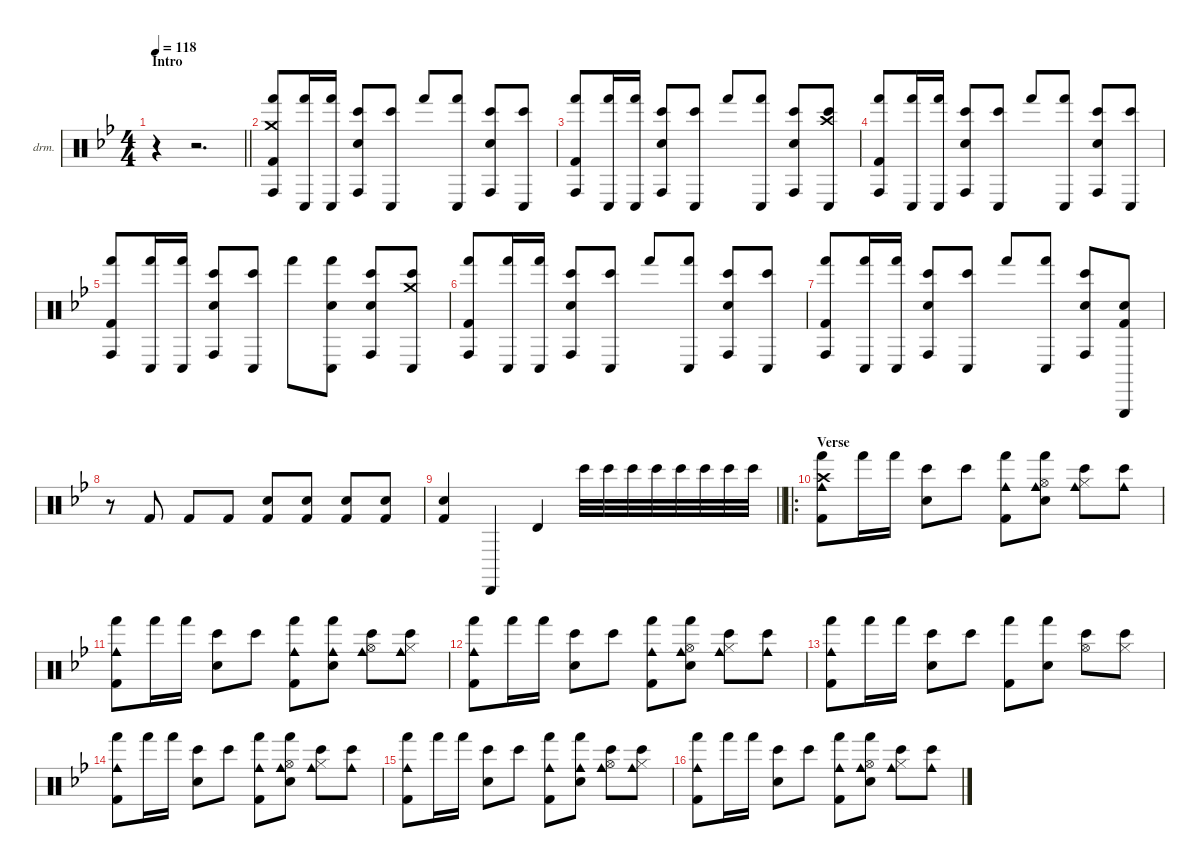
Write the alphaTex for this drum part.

\defaultSystemsLayout 4
\hideDynamics
\bracketExtendMode nobrackets
\firstSystemTrackNameOrientation horizontal
\otherSystemsTrackNameOrientation horizontal
\track ("Percussion" "drm.") {instrument percussion}
\staff {score}
\articulation defaults
\ts (4 4)
\beaming (8 2 2 2 2)
\section ("" "Intro")
\tempo 118
\clef neutral
\barLineRight lightlight
\ks gminor
r.4{dy f} r.2{d} |
("Crash medium (hit)"{acc forcenatural} "Hand (hit)"{acc forcenatural} "Conga high (hit)"{acc forcenatural} "Kick (hit) 2"{acc forcenatural}).8 ("Hand (hit)"{acc forcenatural} "Conga low (hit)"{acc forcenatural}).16 ("Hand (hit)"{acc forcenatural} "Conga low (hit)"{acc forcenatural}).16 ("Bongo High (hit)"{acc forcenatural} "Snare (hit) 2"{acc forcenatural} "Conga high (hit)"{acc forcenatural}).8 ("Bongo High (hit)"{acc forcenatural} "Conga low (hit)"{acc forcenatural}).8 "Hand (hit)"{acc forcenatural}.8 ("Hand (hit)"{acc forcenatural} "Conga low (hit)"{acc forcenatural}).8 ("Bongo High (hit)"{acc forcenatural} "Snare (hit) 2"{acc forcenatural} "Conga high (hit)"{acc forcenatural}).8 ("Bongo High (hit)"{acc forcenatural} "Conga low (hit)"{acc forcenatural}).8 |
("Hand (hit)"{acc forcenatural} "Conga high (hit)"{acc forcenatural} "Kick (hit) 2"{acc forcenatural}).8 ("Hand (hit)"{acc forcenatural} "Conga low (hit)"{acc forcenatural}).16 ("Hand (hit)"{acc forcenatural} "Conga low (hit)"{acc forcenatural}).16 ("Bongo High (hit)"{acc forcenatural} "Snare (hit) 2"{acc forcenatural} "Conga high (hit)"{acc forcenatural}).8 ("Bongo High (hit)"{acc forcenatural} "Conga low (hit)"{acc forcenatural}).8 "Hand (hit)"{acc forcenatural}.8 ("Hand (hit)"{acc forcenatural} "Conga low (hit)"{acc forcenatural}).8 ("Bongo High (hit)"{acc forcenatural} "Snare (hit) 2"{acc forcenatural} "Conga high (hit)"{acc forcenatural}).8 ("Crash high (hit)"{acc forcenatural} "Bongo High (hit)"{acc forcenatural} "Conga low (hit)"{acc forcenatural}).8 |
("Hand (hit)"{acc forcenatural} "Conga high (hit)"{acc forcenatural} "Kick (hit) 2"{acc forcenatural}).8 ("Hand (hit)"{acc forcenatural} "Conga low (hit)"{acc forcenatural}).16 ("Hand (hit)"{acc forcenatural} "Conga low (hit)"{acc forcenatural}).16 ("Bongo High (hit)"{acc forcenatural} "Snare (hit) 2"{acc forcenatural} "Conga high (hit)"{acc forcenatural}).8 ("Bongo High (hit)"{acc forcenatural} "Conga low (hit)"{acc forcenatural}).8 "Hand (hit)"{acc forcenatural}.8 ("Hand (hit)"{acc forcenatural} "Conga low (hit)"{acc forcenatural}).8 ("Bongo High (hit)"{acc forcenatural} "Snare (hit) 2"{acc forcenatural} "Conga high (hit)"{acc forcenatural}).8 ("Bongo High (hit)"{acc forcenatural} "Conga low (hit)"{acc forcenatural}).8 |
("Hand (hit)"{acc forcenatural} "Conga high (hit)"{acc forcenatural} "Kick (hit) 2"{acc forcenatural}).8 ("Hand (hit)"{acc forcenatural} "Conga low (hit)"{acc forcenatural}).16 ("Hand (hit)"{acc forcenatural} "Conga low (hit)"{acc forcenatural}).16 ("Bongo High (hit)"{acc forcenatural} "Snare (hit) 2"{acc forcenatural} "Conga high (hit)"{acc forcenatural}).8 ("Bongo High (hit)"{acc forcenatural} "Conga low (hit)"{acc forcenatural}).8 "Hand (hit)"{acc forcenatural}.8 ("Hand (hit)"{acc forcenatural} "Snare (hit) 2"{acc forcenatural} "Conga low (hit)"{acc forcenatural}).8 ("Bongo High (hit)"{acc forcenatural} "Snare (hit) 2"{acc forcenatural} "Conga high (hit)"{acc forcenatural}).8 ("Crash medium (hit)"{acc forcenatural} "Bongo High (hit)"{acc forcenatural} "Conga low (hit)"{acc forcenatural}).8 |
("Hand (hit)"{acc forcenatural} "Conga high (hit)"{acc forcenatural} "Kick (hit) 2"{acc forcenatural}).8 ("Hand (hit)"{acc forcenatural} "Conga low (hit)"{acc forcenatural}).16 ("Hand (hit)"{acc forcenatural} "Conga low (hit)"{acc forcenatural}).16 ("Bongo High (hit)"{acc forcenatural} "Snare (hit) 2"{acc forcenatural} "Conga high (hit)"{acc forcenatural}).8 ("Bongo High (hit)"{acc forcenatural} "Conga low (hit)"{acc forcenatural}).8 "Hand (hit)"{acc forcenatural}.8 ("Hand (hit)"{acc forcenatural} "Conga low (hit)"{acc forcenatural}).8 ("Bongo High (hit)"{acc forcenatural} "Snare (hit) 2"{acc forcenatural} "Conga high (hit)"{acc forcenatural}).8 ("Bongo High (hit)"{acc forcenatural} "Conga low (hit)"{acc forcenatural}).8 |
("Hand (hit)"{acc forcenatural} "Conga high (hit)"{acc forcenatural} "Kick (hit) 2"{acc forcenatural}).8 ("Hand (hit)"{acc forcenatural} "Conga low (hit)"{acc forcenatural}).16 ("Hand (hit)"{acc forcenatural} "Conga low (hit)"{acc forcenatural}).16 ("Bongo High (hit)"{acc forcenatural} "Snare (hit) 2"{acc forcenatural} "Conga high (hit)"{acc forcenatural}).8 ("Bongo High (hit)"{acc forcenatural} "Conga low (hit)"{acc forcenatural}).8 "Hand (hit)"{acc forcenatural}.8 ("Hand (hit)"{acc forcenatural} "Conga low (hit)"{acc forcenatural}).8 ("Bongo High (hit)"{acc forcenatural} "Snare (hit) 2"{acc forcenatural} "Conga high (hit)"{acc forcenatural}).8 ("Triangle (hit)"{acc forcenatural} "Snare (hit) 2"{acc forcenatural} "Kick (hit) 2"{acc forcenatural}).8 |
r.8 "Kick (hit) 2"{acc forcenatural}.8 "Kick (hit) 2"{acc forcenatural}.8 "Kick (hit) 2"{acc forcenatural}.8 ("Snare (hit) 2"{acc forcenatural} "Kick (hit) 2"{acc forcenatural}).8 ("Snare (hit) 2"{acc forcenatural} "Kick (hit) 2"{acc forcenatural}).8 ("Snare (hit) 2"{acc forcenatural} "Kick (hit) 2"{acc forcenatural}).8 ("Snare (hit) 2"{acc forcenatural} "Kick (hit) 2"{acc forcenatural}).8 |
\barLineRight lightlight
("Snare (hit) 2"{acc forcenatural} "Kick (hit) 2"{acc forcenatural}).4 "Cabasa (hit)"{acc forcenatural}.4 "Timbale high (hit)"{acc forcenatural}.4 "Bongo High (hit)"{acc forcenatural}.32 "Bongo High (hit)"{acc forcenatural}.32 "Bongo High (hit)"{acc forcenatural}.32 "Bongo High (hit)"{acc forcenatural}.32 "Bongo High (hit)"{acc forcenatural}.32 "Bongo High (hit)"{acc forcenatural}.32 "Bongo High (hit)"{acc forcenatural}.32 "Bongo High (hit)"{acc forcenatural}.32 |
\ro
\section ("" "Verse")
("Cowbell medium (hit)"{acc forcenatural} "Hand (hit)"{acc forcenatural} "Crash high (hit)"{acc forcenatural} "Kick (hit) 2"{acc forcenatural}).8 "Hand (hit)"{acc forcenatural}.16 "Hand (hit)"{acc forcenatural}.16 ("Bongo High (hit)"{acc forcenatural} "Snare (hit) 2"{acc forcenatural}).8 "Bongo High (hit)"{acc forcenatural}.8 ("Cowbell medium (hit)"{acc forcenatural} "Hand (hit)"{acc forcenatural} "Kick (hit) 2"{acc forcenatural}).8 ("Cowbell medium (hit)"{acc forcenatural} "Hand (hit)"{acc forcenatural} "Snare (hit) 2"{acc forcenatural} "Hi-Hat (open)"{acc forcenatural}).8 ("Cowbell medium (hit)"{acc forcenatural} "Bongo High (hit)"{acc forcenatural} "Hi-Hat (closed)"{acc forcenatural}).8 ("Cowbell medium (hit)"{acc forcenatural} "Bongo High (hit)"{acc forcenatural}).8 |
("Cowbell medium (hit)"{acc forcenatural} "Hand (hit)"{acc forcenatural} "Kick (hit) 2"{acc forcenatural}).8 "Hand (hit)"{acc forcenatural}.16 "Hand (hit)"{acc forcenatural}.16 ("Bongo High (hit)"{acc forcenatural} "Snare (hit) 2"{acc forcenatural}).8 "Bongo High (hit)"{acc forcenatural}.8 ("Cowbell medium (hit)"{acc forcenatural} "Hand (hit)"{acc forcenatural} "Kick (hit) 2"{acc forcenatural}).8 ("Cowbell medium (hit)"{acc forcenatural} "Hand (hit)"{acc forcenatural} "Snare (hit) 2"{acc forcenatural}).8 ("Cowbell medium (hit)"{acc forcenatural} "Bongo High (hit)"{acc forcenatural} "Hi-Hat (open)"{acc forcenatural}).8 ("Cowbell medium (hit)"{acc forcenatural} "Bongo High (hit)"{acc forcenatural} "Hi-Hat (closed)"{acc forcenatural}).8 |
("Cowbell medium (hit)"{acc forcenatural} "Hand (hit)"{acc forcenatural} "Kick (hit) 2"{acc forcenatural}).8 "Hand (hit)"{acc forcenatural}.16 "Hand (hit)"{acc forcenatural}.16 ("Bongo High (hit)"{acc forcenatural} "Snare (hit) 2"{acc forcenatural}).8 "Bongo High (hit)"{acc forcenatural}.8 ("Cowbell medium (hit)"{acc forcenatural} "Hand (hit)"{acc forcenatural} "Kick (hit) 2"{acc forcenatural}).8 ("Cowbell medium (hit)"{acc forcenatural} "Hand (hit)"{acc forcenatural} "Snare (hit) 2"{acc forcenatural} "Hi-Hat (open)"{acc forcenatural}).8 ("Cowbell medium (hit)"{acc forcenatural} "Bongo High (hit)"{acc forcenatural} "Hi-Hat (closed)"{acc forcenatural}).8 ("Cowbell medium (hit)"{acc forcenatural} "Bongo High (hit)"{acc forcenatural}).8 |
("Cowbell medium (hit)"{acc forcenatural} "Hand (hit)"{acc forcenatural} "Kick (hit) 2"{acc forcenatural}).8 "Hand (hit)"{acc forcenatural}.16 "Hand (hit)"{acc forcenatural}.16 ("Bongo High (hit)"{acc forcenatural} "Snare (hit) 2"{acc forcenatural}).8 "Bongo High (hit)"{acc forcenatural}.8 ("Hand (hit)"{acc forcenatural} "Kick (hit) 2"{acc forcenatural}).8 ("Hand (hit)"{acc forcenatural} "Snare (hit) 2"{acc forcenatural}).8 ("Bongo High (hit)"{acc forcenatural} "Hi-Hat (open)"{acc forcenatural}).8 ("Bongo High (hit)"{acc forcenatural} "Hi-Hat (closed)"{acc forcenatural}).8 |
("Cowbell medium (hit)"{acc forcenatural} "Hand (hit)"{acc forcenatural} "Kick (hit) 2"{acc forcenatural}).8 "Hand (hit)"{acc forcenatural}.16 "Hand (hit)"{acc forcenatural}.16 ("Bongo High (hit)"{acc forcenatural} "Snare (hit) 2"{acc forcenatural}).8 "Bongo High (hit)"{acc forcenatural}.8 ("Cowbell medium (hit)"{acc forcenatural} "Hand (hit)"{acc forcenatural} "Kick (hit) 2"{acc forcenatural}).8 ("Cowbell medium (hit)"{acc forcenatural} "Hand (hit)"{acc forcenatural} "Snare (hit) 2"{acc forcenatural} "Hi-Hat (open)"{acc forcenatural}).8 ("Cowbell medium (hit)"{acc forcenatural} "Bongo High (hit)"{acc forcenatural} "Hi-Hat (closed)"{acc forcenatural}).8 ("Cowbell medium (hit)"{acc forcenatural} "Bongo High (hit)"{acc forcenatural}).8 |
("Cowbell medium (hit)"{acc forcenatural} "Hand (hit)"{acc forcenatural} "Kick (hit) 2"{acc forcenatural}).8 "Hand (hit)"{acc forcenatural}.16 "Hand (hit)"{acc forcenatural}.16 ("Bongo High (hit)"{acc forcenatural} "Snare (hit) 2"{acc forcenatural}).8 "Bongo High (hit)"{acc forcenatural}.8 ("Cowbell medium (hit)"{acc forcenatural} "Hand (hit)"{acc forcenatural} "Kick (hit) 2"{acc forcenatural}).8 ("Cowbell medium (hit)"{acc forcenatural} "Hand (hit)"{acc forcenatural} "Snare (hit) 2"{acc forcenatural}).8 ("Cowbell medium (hit)"{acc forcenatural} "Bongo High (hit)"{acc forcenatural} "Hi-Hat (open)"{acc forcenatural}).8 ("Cowbell medium (hit)"{acc forcenatural} "Bongo High (hit)"{acc forcenatural} "Hi-Hat (closed)"{acc forcenatural}).8 |
("Cowbell medium (hit)"{acc forcenatural} "Hand (hit)"{acc forcenatural} "Kick (hit) 2"{acc forcenatural}).8 "Hand (hit)"{acc forcenatural}.16 "Hand (hit)"{acc forcenatural}.16 ("Bongo High (hit)"{acc forcenatural} "Snare (hit) 2"{acc forcenatural}).8 "Bongo High (hit)"{acc forcenatural}.8 ("Cowbell medium (hit)"{acc forcenatural} "Hand (hit)"{acc forcenatural} "Kick (hit) 2"{acc forcenatural}).8 ("Cowbell medium (hit)"{acc forcenatural} "Hand (hit)"{acc forcenatural} "Snare (hit) 2"{acc forcenatural} "Hi-Hat (open)"{acc forcenatural}).8 ("Cowbell medium (hit)"{acc forcenatural} "Bongo High (hit)"{acc forcenatural} "Hi-Hat (closed)"{acc forcenatural}).8 ("Cowbell medium (hit)"{acc forcenatural} "Bongo High (hit)"{acc forcenatural}).8
